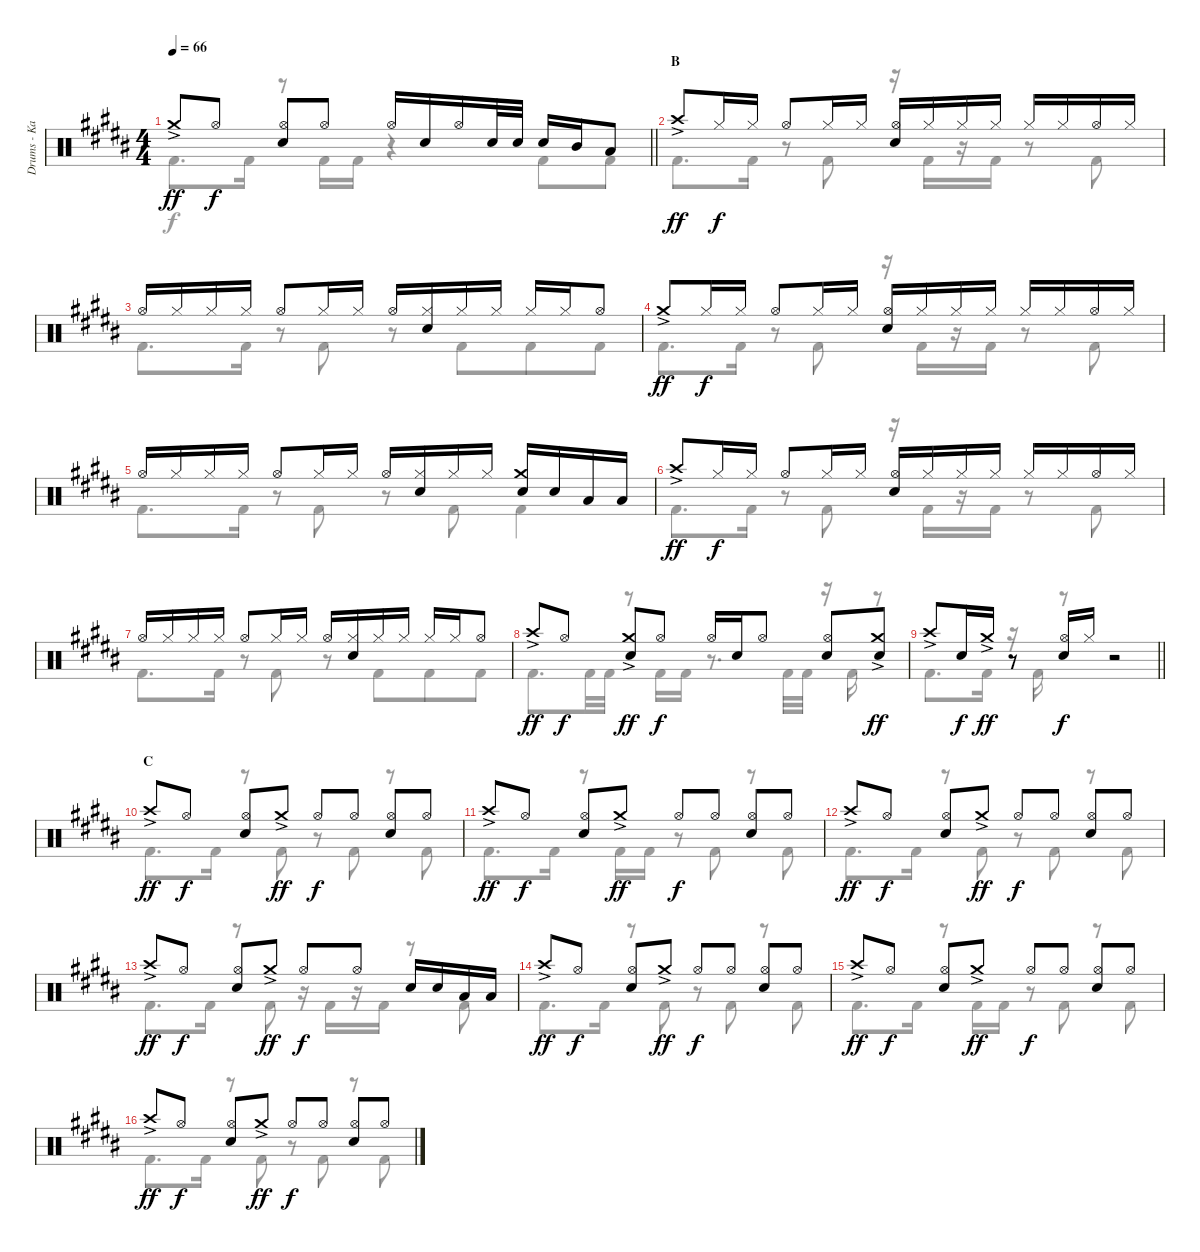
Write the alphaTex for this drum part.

\track ("Drums - Kai" "Drums - Ka") {instrument percussion}
\staff {score}
\articulation defaults
\voice
\ts (4 4)
\tempo 66
\clef neutral
\barLineRight lightlight
\ks b "Crash medium (hit)"{ac}.8{dy ff} "Hi-Hat (open)".8{dy f}
("Hi-Hat (open)" "Electric Snare (hit)").8 "Hi-Hat (open)".8 "Hi-Hat (open)".16 "Electric Snare (hit)".16 "Hi-Hat (open)".16 "Electric Snare (hit)".32 "Electric Snare (hit)".32 "Electric Snare (hit)".16 "Mid Tom (hit)".16 "Low Tom (hit)".8 |
\section ("" "B")
"Crash high (hit)"{ac}.8{dy ff} "Hi-Hat (closed)".16{dy f} "Hi-Hat (closed)".16 "Hi-Hat (open)".8 "Hi-Hat (closed)".16 "Hi-Hat (closed)".16 ("Hi-Hat (open)" "Electric Snare (hit)").16 "Hi-Hat (closed)".16 "Hi-Hat (closed)".16 "Hi-Hat (closed)".16 "Hi-Hat (closed)".16 "Hi-Hat (closed)".16 "Hi-Hat (open)".16 "Hi-Hat (closed)".16 |
"Hi-Hat (open)".16 "Hi-Hat (closed)".16 "Hi-Hat (closed)".16 "Hi-Hat (closed)".16 "Hi-Hat (open)".8 "Hi-Hat (closed)".16 "Hi-Hat (closed)".16 "Hi-Hat (open)".16 ("Hi-Hat (closed)" "Electric Snare (hit)").16 "Hi-Hat (closed)".16 "Hi-Hat (closed)".16 "Hi-Hat (closed)".16 "Hi-Hat (closed)".16 "Hi-Hat (open)".8 |
"Crash medium (hit)"{ac}.8{dy ff} "Hi-Hat (closed)".16{dy f} "Hi-Hat (closed)".16 "Hi-Hat (open)".8 "Hi-Hat (closed)".16 "Hi-Hat (closed)".16 ("Hi-Hat (open)" "Electric Snare (hit)").16 "Hi-Hat (closed)".16 "Hi-Hat (closed)".16 "Hi-Hat (closed)".16 "Hi-Hat (closed)".16 "Hi-Hat (closed)".16 "Hi-Hat (open)".16 "Hi-Hat (closed)".16 |
"Hi-Hat (open)".16 "Hi-Hat (closed)".16 "Hi-Hat (closed)".16 "Hi-Hat (closed)".16 "Hi-Hat (open)".8 "Hi-Hat (closed)".16 "Hi-Hat (closed)".16 "Hi-Hat (open)".16 ("Hi-Hat (closed)" "Electric Snare (hit)").16 "Hi-Hat (closed)".16 "Hi-Hat (closed)".16 ("Crash medium (hit)" "Electric Snare (hit)").16 "Electric Snare (hit)".16 "Low Tom (hit)".16 "Low Tom (hit)".16 |
"Crash high (hit)"{ac}.8{dy ff} "Hi-Hat (closed)".16{dy f} "Hi-Hat (closed)".16 "Hi-Hat (open)".8 "Hi-Hat (closed)".16 "Hi-Hat (closed)".16 ("Hi-Hat (open)" "Electric Snare (hit)").16 "Hi-Hat (closed)".16 "Hi-Hat (closed)".16 "Hi-Hat (closed)".16 "Hi-Hat (closed)".16 "Hi-Hat (closed)".16 "Hi-Hat (open)".16 "Hi-Hat (closed)".16 |
"Hi-Hat (open)".16 "Hi-Hat (closed)".16 "Hi-Hat (closed)".16 "Hi-Hat (closed)".16 "Hi-Hat (open)".8 "Hi-Hat (closed)".16 "Hi-Hat (closed)".16 "Hi-Hat (open)".16 ("Hi-Hat (closed)" "Electric Snare (hit)").16 "Hi-Hat (closed)".16 "Hi-Hat (closed)".16 "Hi-Hat (closed)".16 "Hi-Hat (closed)".16 "Hi-Hat (open)".8 |
"Crash high (hit)"{ac}.8{dy ff} "Hi-Hat (open)".8{dy f} ("Crash medium (hit)"{ac} "Electric Snare (hit)").8{dy ff} "Hi-Hat (open)".8{dy f} "Hi-Hat (open)".16 "Electric Snare (hit)".16 "Hi-Hat (open)".8 ("Hi-Hat (open)" "Electric Snare (hit)").8 ("Crash medium (hit)"{ac} "Snare (hit) 2").8{dy ff} |
\barLineRight lightlight "Crash high (hit)"{ac}.8 "Electric Snare (hit)".16{dy f} "Crash medium (hit)"{ac}.16{dy ff}
r.8 ("Hi-Hat (open)" "Electric Snare (hit)").16{dy f} "Hi-Hat (closed)".16 r.2 |
\section ("" "C")
"Crash high (hit)"{ac}.8{dy ff} "Hi-Hat (open)".8{dy f} ("Hi-Hat (open)" "Electric Snare (hit)").8 "Crash medium (hit)"{ac}.8{dy ff} "Hi-Hat (open)".8{dy f} "Hi-Hat (open)".8 ("Hi-Hat (open)" "Electric Snare (hit)").8 "Hi-Hat (open)".8 |
"Crash high (hit)"{ac}.8{dy ff} "Hi-Hat (open)".8{dy f} ("Hi-Hat (open)" "Electric Snare (hit)").8 "Crash medium (hit)"{ac}.8{dy ff} "Hi-Hat (open)".8{dy f} "Hi-Hat (open)".8 ("Hi-Hat (open)" "Electric Snare (hit)").8 "Hi-Hat (open)".8 |
"Crash high (hit)"{ac}.8{dy ff} "Hi-Hat (open)".8{dy f} ("Hi-Hat (open)" "Electric Snare (hit)").8 "Crash medium (hit)"{ac}.8{dy ff} "Hi-Hat (open)".8{dy f} "Hi-Hat (open)".8 ("Hi-Hat (open)" "Electric Snare (hit)").8 "Hi-Hat (open)".8 |
"Crash high (hit)"{ac}.8{dy ff} "Hi-Hat (open)".8{dy f} ("Hi-Hat (open)" "Electric Snare (hit)").8 "Crash medium (hit)"{ac}.8{dy ff} "Hi-Hat (open)".8{dy f} "Hi-Hat (open)".8 "Electric Snare (hit)".16 "Electric Snare (hit)".16 "Low Tom (hit)".16 "Low Tom (hit)".16 |
"Crash high (hit)"{ac}.8{dy ff} "Hi-Hat (open)".8{dy f} ("Hi-Hat (open)" "Electric Snare (hit)").8 "Crash medium (hit)"{ac}.8{dy ff} "Hi-Hat (open)".8{dy f} "Hi-Hat (open)".8 ("Hi-Hat (open)" "Electric Snare (hit)").8 "Hi-Hat (open)".8 |
"Crash high (hit)"{ac}.8{dy ff} "Hi-Hat (open)".8{dy f} ("Hi-Hat (open)" "Electric Snare (hit)").8 "Crash medium (hit)"{ac}.8{dy ff} "Hi-Hat (open)".8{dy f} "Hi-Hat (open)".8 ("Hi-Hat (open)" "Electric Snare (hit)").8 "Hi-Hat (open)".8 |
"Crash high (hit)"{ac}.8{dy ff} "Hi-Hat (open)".8{dy f} ("Hi-Hat (open)" "Electric Snare (hit)").8 "Crash medium (hit)"{ac}.8{dy ff} "Hi-Hat (open)".8{dy f} "Hi-Hat (open)".8 ("Hi-Hat (open)" "Electric Snare (hit)").8 "Hi-Hat (open)".8
\voice
\clef neutral
\ottava regular
\simile none
\barLineRight lightlight
\ks b "Kick (hit) 2".8{d dy f} "Kick (hit) 2".16
r.8 "Kick (hit) 2".16 "Kick (hit) 2".16 r.4 "Kick (hit) 2".8 "Kick (hit) 2".8 |
"Kick (hit) 2".8{d} "Kick (hit) 2".16 r.8 "Kick (hit) 2".8 r.16 "Kick (hit) 2".16 r.16 "Kick (hit) 2".16 r.8 "Kick (hit) 2".8 |
"Kick (hit) 2".8{d} "Kick (hit) 2".16 r.8 "Kick (hit) 2".8 r.8 "Kick (hit) 2".8{beam merge} "Kick (hit) 2".8 "Kick (hit) 2".8 |
"Kick (hit) 2".8{d} "Kick (hit) 2".16 r.8 "Kick (hit) 2".8 r.16 "Kick (hit) 2".16 r.16 "Kick (hit) 2".16 r.8 "Kick (hit) 2".8 |
"Kick (hit) 2".8{d} "Kick (hit) 2".16 r.8 "Kick (hit) 2".8 r.8 "Kick (hit) 2".8 "Kick (hit) 2".4 |
"Kick (hit) 2".8{d} "Kick (hit) 2".16 r.8 "Kick (hit) 2".8 r.16 "Kick (hit) 2".16 r.16 "Kick (hit) 2".16 r.8 "Kick (hit) 2".8 |
"Kick (hit) 2".8{d} "Kick (hit) 2".16 r.8 "Kick (hit) 2".8 r.8 "Kick (hit) 2".8{beam merge} "Kick (hit) 2".8 "Kick (hit) 2".8 |
"Kick (hit) 2".8{d} "Kick (hit) 2".32 "Kick (hit) 2".32 r.8 "Kick (hit) 2".16 "Kick (hit) 2".16 r.8{d} "Kick (hit) 2".32 "Kick (hit) 2".32 r.16 "Kick (hit) 2".16 r.8 |
\barLineRight lightlight "Kick (hit) 2".8{d} "Kick (hit) 2".16
r.16 "Kick (hit) 2".16 r.8 r.2 |
"Kick (hit) 2".8{d} "Kick (hit) 2".16 r.8 "Kick (hit) 2".8 r.8 "Kick (hit) 2".8 r.8 "Kick (hit) 2".8 |
"Kick (hit) 2".8{d} "Kick (hit) 2".16 r.8 "Kick (hit) 2".16 "Kick (hit) 2".16 r.8 "Kick (hit) 2".8 r.8 "Kick (hit) 2".8 |
"Kick (hit) 2".8{d} "Kick (hit) 2".16 r.8 "Kick (hit) 2".8 r.8 "Kick (hit) 2".8 r.8 "Kick (hit) 2".8 |
"Kick (hit) 2".8{d} "Kick (hit) 2".16 r.8 "Kick (hit) 2".8 r.16 "Kick (hit) 2".16 r.16 "Kick (hit) 2".16 r.8 "Kick (hit) 2".8 |
"Kick (hit) 2".8{d} "Kick (hit) 2".16 r.8 "Kick (hit) 2".8 r.8 "Kick (hit) 2".8 r.8 "Kick (hit) 2".8 |
"Kick (hit) 2".8{d} "Kick (hit) 2".16 r.8 "Kick (hit) 2".16 "Kick (hit) 2".16 r.8 "Kick (hit) 2".8 r.8 "Kick (hit) 2".8 |
"Kick (hit) 2".8{d} "Kick (hit) 2".16 r.8 "Kick (hit) 2".8 r.8 "Kick (hit) 2".8 r.8 "Kick (hit) 2".8
